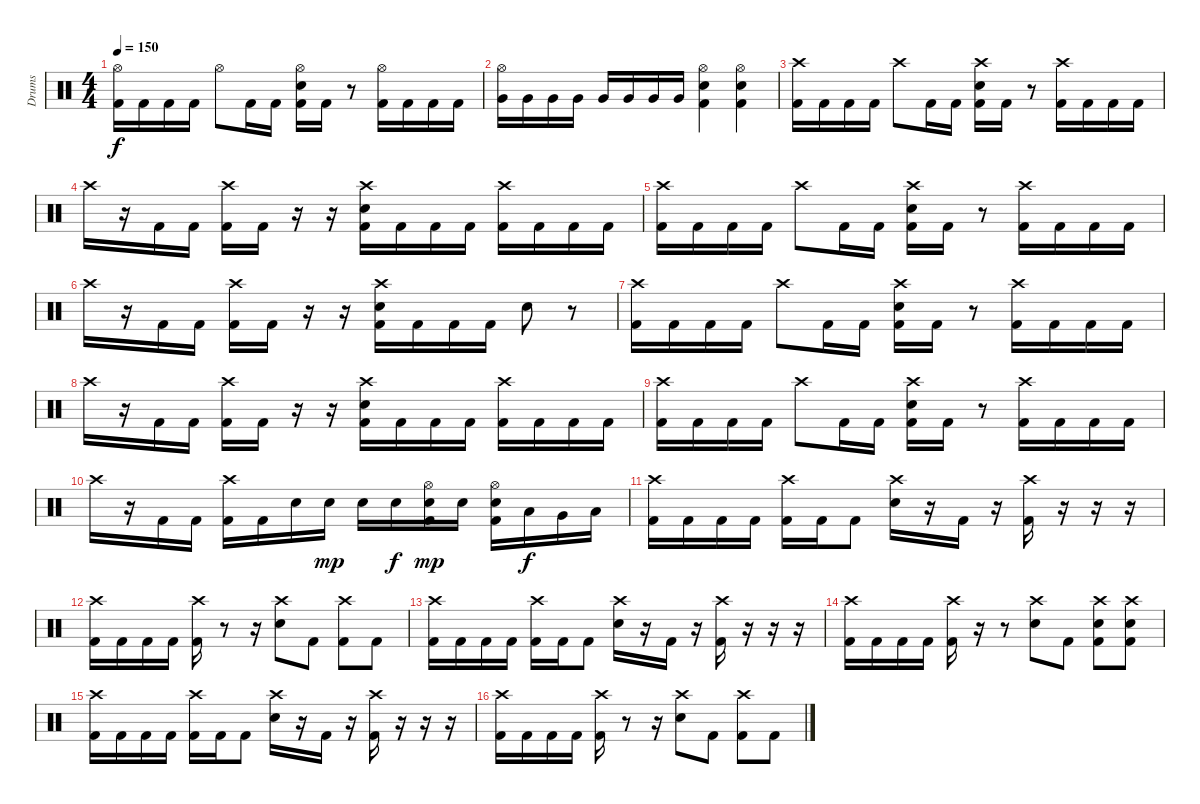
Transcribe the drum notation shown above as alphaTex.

\track ("Drums" "Drums") {instrument percussion}
\staff {score}
\articulation defaults
\ts (4 4)
\tempo 150
\clef neutral
\ks c
("Hi-Hat (open)" "Kick (hit) 2").16{dy f} "Kick (hit) 2".16 "Kick (hit) 2".16 "Kick (hit) 2".16 "Hi-Hat (open)".8 "Kick (hit) 2".16 "Kick (hit) 2".16 ("Hi-Hat (open)" "Electric Snare (hit)" "Kick (hit) 2").16 "Kick (hit) 2".16 r.8 ("Hi-Hat (open)" "Kick (hit) 2").16 "Kick (hit) 2".16 "Kick (hit) 2".16 "Kick (hit) 2".16 |
("Hi-Hat (open)" "Very Low Tom (hit)").16 "Very Low Tom (hit)".16 "Very Low Tom (hit)".16 "Very Low Tom (hit)".16 "Very Low Tom (hit)".16 "Very Low Tom (hit)".16 "Very Low Tom (hit)".16 "Very Low Tom (hit)".16 ("Hi-Hat (open)" "Electric Snare (hit)" "Kick (hit) 2").4 ("Hi-Hat (open)" "Electric Snare (hit)" "Kick (hit) 2").4 |
("Crash high (hit)" "Kick (hit) 2").16 "Kick (hit) 2".16 "Kick (hit) 2".16 "Kick (hit) 2".16 "Crash high (hit)".8 "Kick (hit) 2".16 "Kick (hit) 2".16 ("Crash high (hit)" "Electric Snare (hit)" "Kick (hit) 2").16 "Kick (hit) 2".16 r.8 ("Crash high (hit)" "Kick (hit) 2").16 "Kick (hit) 2".16 "Kick (hit) 2".16 "Kick (hit) 2".16 |
"Crash high (hit)".16 r.16 "Kick (hit) 2".16 "Kick (hit) 2".16 ("Crash high (hit)" "Kick (hit) 2").16 "Kick (hit) 2".16 r.16 r.16 ("Crash high (hit)" "Electric Snare (hit)" "Kick (hit) 2").16 "Kick (hit) 2".16 "Kick (hit) 2".16 "Kick (hit) 2".16 ("Crash high (hit)" "Kick (hit) 2").16 "Kick (hit) 2".16 "Kick (hit) 2".16 "Kick (hit) 2".16 |
("Crash high (hit)" "Kick (hit) 2").16 "Kick (hit) 2".16 "Kick (hit) 2".16 "Kick (hit) 2".16 "Crash high (hit)".8 "Kick (hit) 2".16 "Kick (hit) 2".16 ("Crash high (hit)" "Electric Snare (hit)" "Kick (hit) 2").16 "Kick (hit) 2".16 r.8 ("Crash high (hit)" "Kick (hit) 2").16 "Kick (hit) 2".16 "Kick (hit) 2".16 "Kick (hit) 2".16 |
"Crash high (hit)".16 r.16 "Kick (hit) 2".16 "Kick (hit) 2".16 ("Crash high (hit)" "Kick (hit) 2").16 "Kick (hit) 2".16 r.16 r.16 ("Crash high (hit)" "Electric Snare (hit)" "Kick (hit) 2").16 "Kick (hit) 2".16 "Kick (hit) 2".16 "Kick (hit) 2".16 "Electric Snare (hit)".8 r.8 |
("Crash high (hit)" "Kick (hit) 2").16 "Kick (hit) 2".16 "Kick (hit) 2".16 "Kick (hit) 2".16 "Crash high (hit)".8 "Kick (hit) 2".16 "Kick (hit) 2".16 ("Crash high (hit)" "Electric Snare (hit)" "Kick (hit) 2").16 "Kick (hit) 2".16 r.8 ("Crash high (hit)" "Kick (hit) 2").16 "Kick (hit) 2".16 "Kick (hit) 2".16 "Kick (hit) 2".16 |
"Crash high (hit)".16 r.16 "Kick (hit) 2".16 "Kick (hit) 2".16 ("Crash high (hit)" "Kick (hit) 2").16 "Kick (hit) 2".16 r.16 r.16 ("Crash high (hit)" "Electric Snare (hit)" "Kick (hit) 2").16 "Kick (hit) 2".16 "Kick (hit) 2".16 "Kick (hit) 2".16 ("Crash high (hit)" "Kick (hit) 2").16 "Kick (hit) 2".16 "Kick (hit) 2".16 "Kick (hit) 2".16 |
("Crash high (hit)" "Kick (hit) 2").16 "Kick (hit) 2".16 "Kick (hit) 2".16 "Kick (hit) 2".16 "Crash high (hit)".8 "Kick (hit) 2".16 "Kick (hit) 2".16 ("Crash high (hit)" "Electric Snare (hit)" "Kick (hit) 2").16 "Kick (hit) 2".16 r.8 ("Crash high (hit)" "Kick (hit) 2").16 "Kick (hit) 2".16 "Kick (hit) 2".16 "Kick (hit) 2".16 |
"Crash high (hit)".16 r.16 "Kick (hit) 2".16 "Kick (hit) 2".16 ("Crash high (hit)" "Kick (hit) 2").16 "Kick (hit) 2".16 "Electric Snare (hit)".16 "Electric Snare (hit)".16{dy mp} "Electric Snare (hit)".16 "Electric Snare (hit)".16{dy f} ("Hi-Hat (open)" "Electric Snare (hit)" "Kick (hit) 2").16{dy mp} "Electric Snare (hit)".16 ("Hi-Hat (open)" "Electric Snare (hit)" "Kick (hit) 2").16 "Low Tom (hit)".16{dy f} "Very Low Tom (hit)".16 "Low Floor Tom (hit)".16 |
("Crash high (hit)" "Kick (hit) 2").16 "Kick (hit) 2".16 "Kick (hit) 2".16 "Kick (hit) 2".16 ("Crash high (hit)" "Kick (hit) 2").16 "Kick (hit) 2".16 "Kick (hit) 2".8 ("Crash high (hit)" "Electric Snare (hit)").16 r.16 "Kick (hit) 2".16 r.16 ("Crash high (hit)" "Kick (hit) 2").16 r.16 r.16 r.16 |
("Crash high (hit)" "Kick (hit) 2").16 "Kick (hit) 2".16 "Kick (hit) 2".16 "Kick (hit) 2".16 ("Crash high (hit)" "Kick (hit) 2").16 r.8 r.16 ("Crash high (hit)" "Electric Snare (hit)").8 "Kick (hit) 2".8 ("Crash high (hit)" "Kick (hit) 2").8 "Kick (hit) 2".8 |
("Crash high (hit)" "Kick (hit) 2").16 "Kick (hit) 2".16 "Kick (hit) 2".16 "Kick (hit) 2".16 ("Crash high (hit)" "Kick (hit) 2").16 "Kick (hit) 2".16 "Kick (hit) 2".8 ("Crash high (hit)" "Electric Snare (hit)").16 r.16 "Kick (hit) 2".16 r.16 ("Crash high (hit)" "Kick (hit) 2").16 r.16 r.16 r.16 |
("Crash high (hit)" "Kick (hit) 2").16 "Kick (hit) 2".16 "Kick (hit) 2".16 "Kick (hit) 2".16 ("Crash high (hit)" "Kick (hit) 2").16 r.16 r.8 ("Crash high (hit)" "Electric Snare (hit)").8 "Kick (hit) 2".8 ("Crash high (hit)" "Electric Snare (hit)" "Kick (hit) 2").8 ("Crash high (hit)" "Electric Snare (hit)" "Kick (hit) 2").8 |
("Crash high (hit)" "Kick (hit) 2").16 "Kick (hit) 2".16 "Kick (hit) 2".16 "Kick (hit) 2".16 ("Crash high (hit)" "Kick (hit) 2").16 "Kick (hit) 2".16 "Kick (hit) 2".8 ("Crash high (hit)" "Electric Snare (hit)").16 r.16 "Kick (hit) 2".16 r.16 ("Crash high (hit)" "Kick (hit) 2").16 r.16 r.16 r.16 |
("Crash high (hit)" "Kick (hit) 2").16 "Kick (hit) 2".16 "Kick (hit) 2".16 "Kick (hit) 2".16 ("Crash high (hit)" "Kick (hit) 2").16 r.8 r.16 ("Crash high (hit)" "Electric Snare (hit)").8 "Kick (hit) 2".8 ("Crash high (hit)" "Kick (hit) 2").8 "Kick (hit) 2".8
